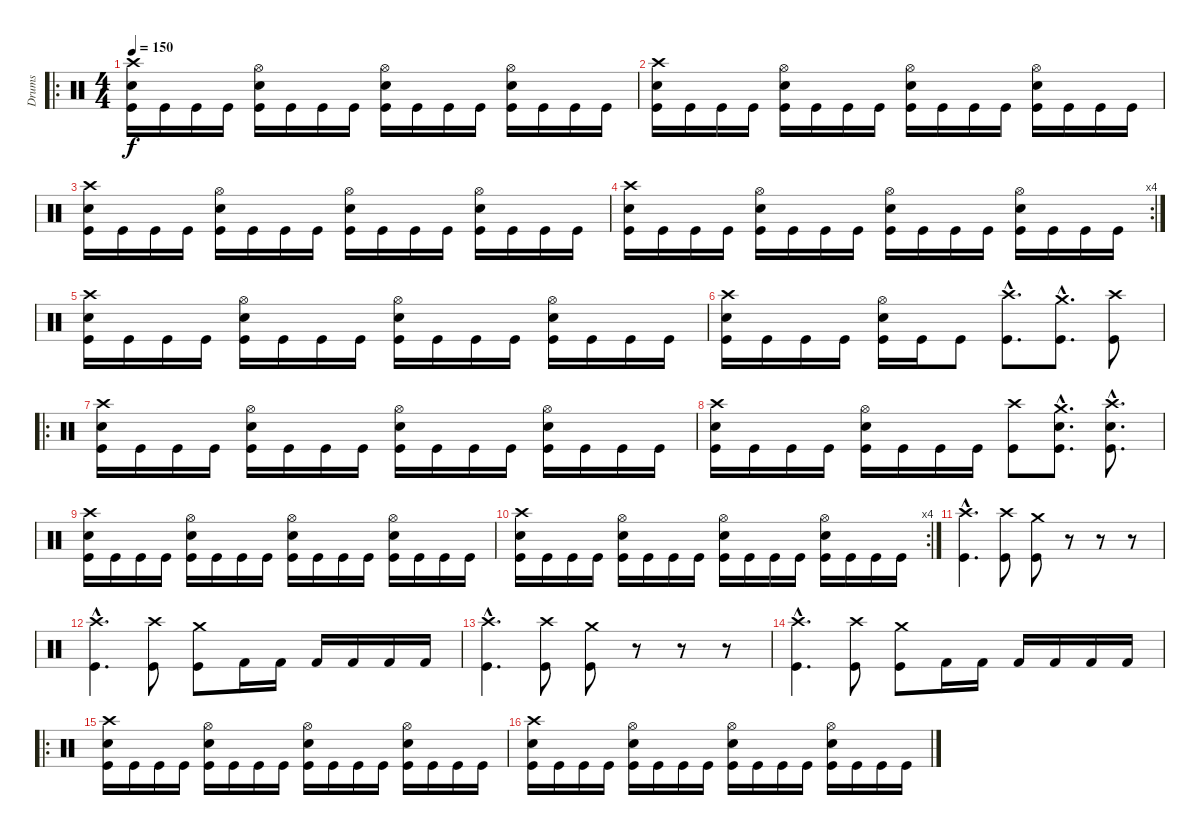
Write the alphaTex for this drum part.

\track ("Drums" "Drums") {instrument percussion}
\staff {score}
\articulation defaults
\ro
\ts (4 4)
\tempo 150
\clef neutral
\ks c
("Crash high (hit)" "Snare (hit) 2" "Kick (hit)").16{dy f} "Kick (hit)".16 "Kick (hit)".16 "Kick (hit)".16 ("Hi-Hat (open)" "Snare (hit) 2" "Kick (hit)").16 "Kick (hit)".16 "Kick (hit)".16 "Kick (hit)".16 ("Hi-Hat (open)" "Snare (hit) 2" "Kick (hit)").16 "Kick (hit)".16 "Kick (hit)".16 "Kick (hit)".16 ("Hi-Hat (open)" "Snare (hit) 2" "Kick (hit)").16 "Kick (hit)".16 "Kick (hit)".16 "Kick (hit)".16 |
("Crash high (hit)" "Snare (hit) 2" "Kick (hit)").16 "Kick (hit)".16 "Kick (hit)".16 "Kick (hit)".16 ("Hi-Hat (open)" "Snare (hit) 2" "Kick (hit)").16 "Kick (hit)".16 "Kick (hit)".16 "Kick (hit)".16 ("Hi-Hat (open)" "Snare (hit) 2" "Kick (hit)").16 "Kick (hit)".16 "Kick (hit)".16 "Kick (hit)".16 ("Hi-Hat (open)" "Snare (hit) 2" "Kick (hit)").16 "Kick (hit)".16 "Kick (hit)".16 "Kick (hit)".16 |
("Crash high (hit)" "Snare (hit) 2" "Kick (hit)").16 "Kick (hit)".16 "Kick (hit)".16 "Kick (hit)".16 ("Hi-Hat (open)" "Snare (hit) 2" "Kick (hit)").16 "Kick (hit)".16 "Kick (hit)".16 "Kick (hit)".16 ("Hi-Hat (open)" "Snare (hit) 2" "Kick (hit)").16 "Kick (hit)".16 "Kick (hit)".16 "Kick (hit)".16 ("Hi-Hat (open)" "Snare (hit) 2" "Kick (hit)").16 "Kick (hit)".16 "Kick (hit)".16 "Kick (hit)".16 |
\rc 4
("Crash high (hit)" "Snare (hit) 2" "Kick (hit)").16 "Kick (hit)".16 "Kick (hit)".16 "Kick (hit)".16 ("Hi-Hat (open)" "Snare (hit) 2" "Kick (hit)").16 "Kick (hit)".16 "Kick (hit)".16 "Kick (hit)".16 ("Hi-Hat (open)" "Snare (hit) 2" "Kick (hit)").16 "Kick (hit)".16 "Kick (hit)".16 "Kick (hit)".16 ("Hi-Hat (open)" "Snare (hit) 2" "Kick (hit)").16 "Kick (hit)".16 "Kick (hit)".16 "Kick (hit)".16 |
("Crash high (hit)" "Snare (hit) 2" "Kick (hit)").16 "Kick (hit)".16 "Kick (hit)".16 "Kick (hit)".16 ("Hi-Hat (open)" "Snare (hit) 2" "Kick (hit)").16 "Kick (hit)".16 "Kick (hit)".16 "Kick (hit)".16 ("Hi-Hat (open)" "Snare (hit) 2" "Kick (hit)").16 "Kick (hit)".16 "Kick (hit)".16 "Kick (hit)".16 ("Hi-Hat (open)" "Snare (hit) 2" "Kick (hit)").16 "Kick (hit)".16 "Kick (hit)".16 "Kick (hit)".16 |
("Crash high (hit)" "Snare (hit) 2" "Kick (hit)").16 "Kick (hit)".16 "Kick (hit)".16 "Kick (hit)".16 ("Hi-Hat (open)" "Snare (hit) 2" "Kick (hit)").16 "Kick (hit)".16 "Kick (hit)".8 ("Crash high (hit)"{hac} "Kick (hit)"{hac}).8{d} ("Crash medium (hit)"{hac} "Kick (hit)"{hac}).8{d} ("Crash high (hit)" "Kick (hit)").8 |
\ro
("Crash high (hit)" "Snare (hit) 2" "Kick (hit)").16 "Kick (hit)".16 "Kick (hit)".16 "Kick (hit)".16 ("Hi-Hat (open)" "Snare (hit) 2" "Kick (hit)").16 "Kick (hit)".16 "Kick (hit)".16 "Kick (hit)".16 ("Hi-Hat (open)" "Snare (hit) 2" "Kick (hit)").16 "Kick (hit)".16 "Kick (hit)".16 "Kick (hit)".16 ("Hi-Hat (open)" "Snare (hit) 2" "Kick (hit)").16 "Kick (hit)".16 "Kick (hit)".16 "Kick (hit)".16 |
("Crash high (hit)" "Snare (hit) 2" "Kick (hit)").16 "Kick (hit)".16 "Kick (hit)".16 "Kick (hit)".16 ("Hi-Hat (open)" "Snare (hit) 2" "Kick (hit)").16 "Kick (hit)".16 "Kick (hit)".16 "Kick (hit)".16 ("Crash high (hit)" "Kick (hit)").8 ("Crash medium (hit)"{hac} "Snare (hit) 2"{hac} "Kick (hit)"{hac}).8{d} ("Crash high (hit)"{hac} "Snare (hit) 2"{hac} "Kick (hit)"{hac}).8{d} |
("Crash high (hit)" "Snare (hit) 2" "Kick (hit)").16 "Kick (hit)".16 "Kick (hit)".16 "Kick (hit)".16 ("Hi-Hat (open)" "Snare (hit) 2" "Kick (hit)").16 "Kick (hit)".16 "Kick (hit)".16 "Kick (hit)".16 ("Hi-Hat (open)" "Snare (hit) 2" "Kick (hit)").16 "Kick (hit)".16 "Kick (hit)".16 "Kick (hit)".16 ("Hi-Hat (open)" "Snare (hit) 2" "Kick (hit)").16 "Kick (hit)".16 "Kick (hit)".16 "Kick (hit)".16 |
\rc 4
("Crash high (hit)" "Snare (hit) 2" "Kick (hit)").16 "Kick (hit)".16 "Kick (hit)".16 "Kick (hit)".16 ("Hi-Hat (open)" "Snare (hit) 2" "Kick (hit)").16 "Kick (hit)".16 "Kick (hit)".16 "Kick (hit)".16 ("Hi-Hat (open)" "Snare (hit) 2" "Kick (hit)").16 "Kick (hit)".16 "Kick (hit)".16 "Kick (hit)".16 ("Hi-Hat (open)" "Snare (hit) 2" "Kick (hit)").16 "Kick (hit)".16 "Kick (hit)".16 "Kick (hit)".16 |
("Crash high (hit)"{hac} "Kick (hit)"{hac}).4{d} ("Crash high (hit)" "Kick (hit)").8 ("Crash medium (hit)" "Kick (hit)").8 r.8 r.8 r.8 |
("Crash high (hit)"{hac} "Kick (hit)"{hac}).4{d} ("Crash high (hit)" "Kick (hit)").8 ("Crash medium (hit)" "Kick (hit)").8 "Kick (hit) 2".16 "Kick (hit) 2".16 "Kick (hit) 2".16 "Kick (hit) 2".16 "Kick (hit) 2".16 "Kick (hit) 2".16 |
("Crash high (hit)"{hac} "Kick (hit)"{hac}).4{d} ("Crash high (hit)" "Kick (hit)").8 ("Crash medium (hit)" "Kick (hit)").8 r.8 r.8 r.8 |
("Crash high (hit)"{hac} "Kick (hit)"{hac}).4{d} ("Crash high (hit)" "Kick (hit)").8 ("Crash medium (hit)" "Kick (hit)").8 "Kick (hit) 2".16 "Kick (hit) 2".16 "Kick (hit) 2".16 "Kick (hit) 2".16 "Kick (hit) 2".16 "Kick (hit) 2".16 |
\ro
("Crash high (hit)" "Snare (hit) 2" "Kick (hit)").16 "Kick (hit)".16 "Kick (hit)".16 "Kick (hit)".16 ("Hi-Hat (open)" "Snare (hit) 2" "Kick (hit)").16 "Kick (hit)".16 "Kick (hit)".16 "Kick (hit)".16 ("Hi-Hat (open)" "Snare (hit) 2" "Kick (hit)").16 "Kick (hit)".16 "Kick (hit)".16 "Kick (hit)".16 ("Hi-Hat (open)" "Snare (hit) 2" "Kick (hit)").16 "Kick (hit)".16 "Kick (hit)".16 "Kick (hit)".16 |
("Crash high (hit)" "Snare (hit) 2" "Kick (hit)").16 "Kick (hit)".16 "Kick (hit)".16 "Kick (hit)".16 ("Hi-Hat (open)" "Snare (hit) 2" "Kick (hit)").16 "Kick (hit)".16 "Kick (hit)".16 "Kick (hit)".16 ("Hi-Hat (open)" "Snare (hit) 2" "Kick (hit)").16 "Kick (hit)".16 "Kick (hit)".16 "Kick (hit)".16 ("Hi-Hat (open)" "Snare (hit) 2" "Kick (hit)").16 "Kick (hit)".16 "Kick (hit)".16 "Kick (hit)".16
